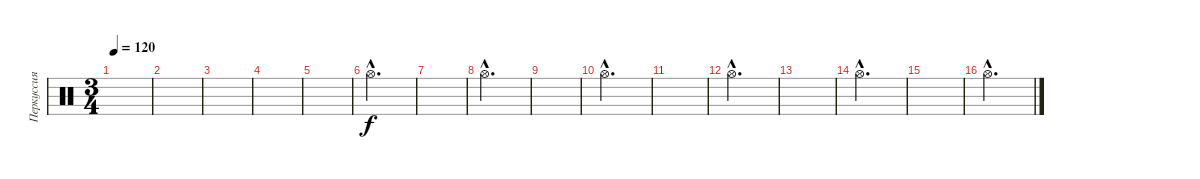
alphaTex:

\track ("Перкуссия" "Перкуссия") {instrument percussion}
\staff {score}
\articulation defaults
\ts (3 4)
\tempo 120
\clef neutral
\ks c
|
|
|
|
|
"Hi-Hat (open)"{hac}.2{d} |
|
"Hi-Hat (open)"{hac}.2{d} |
|
"Hi-Hat (open)"{hac}.2{d} |
|
"Hi-Hat (open)"{hac}.2{d} |
|
"Hi-Hat (open)"{hac}.2{d} |
|
"Hi-Hat (open)"{hac}.2{d}
